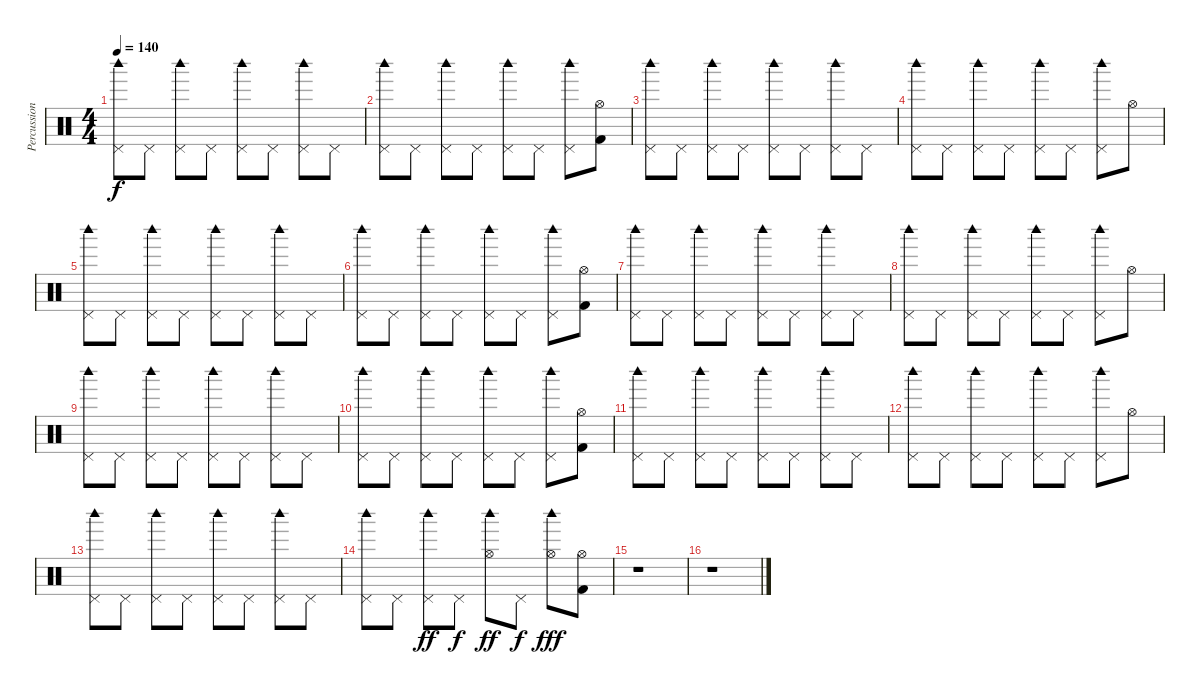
\track ("Percussion" "Percussion") {instrument percussion}
\staff {score}
\articulation defaults
\ts (4 4)
\tempo 140
\clef neutral
\ks c
("Pedal Hi-Hat (hit)" "Woodblock high (hit)").8{dy f} "Pedal Hi-Hat (hit)".8 ("Pedal Hi-Hat (hit)" "Woodblock high (hit)").8 "Pedal Hi-Hat (hit)".8 ("Pedal Hi-Hat (hit)" "Woodblock high (hit)").8 "Pedal Hi-Hat (hit)".8 ("Pedal Hi-Hat (hit)" "Woodblock high (hit)").8 "Pedal Hi-Hat (hit)".8 |
("Pedal Hi-Hat (hit)" "Woodblock high (hit)").8 "Pedal Hi-Hat (hit)".8 ("Pedal Hi-Hat (hit)" "Woodblock high (hit)").8 "Pedal Hi-Hat (hit)".8 ("Pedal Hi-Hat (hit)" "Woodblock high (hit)").8 "Pedal Hi-Hat (hit)".8 ("Pedal Hi-Hat (hit)" "Woodblock high (hit)").8 ("Hi-Hat (open)" "Kick (hit) 2").8 |
("Pedal Hi-Hat (hit)" "Woodblock high (hit)").8 "Pedal Hi-Hat (hit)".8 ("Pedal Hi-Hat (hit)" "Woodblock high (hit)").8 "Pedal Hi-Hat (hit)".8 ("Pedal Hi-Hat (hit)" "Woodblock high (hit)").8 "Pedal Hi-Hat (hit)".8 ("Pedal Hi-Hat (hit)" "Woodblock high (hit)").8 "Pedal Hi-Hat (hit)".8 |
("Pedal Hi-Hat (hit)" "Woodblock high (hit)").8 "Pedal Hi-Hat (hit)".8 ("Pedal Hi-Hat (hit)" "Woodblock high (hit)").8 "Pedal Hi-Hat (hit)".8 ("Pedal Hi-Hat (hit)" "Woodblock high (hit)").8 "Pedal Hi-Hat (hit)".8 ("Pedal Hi-Hat (hit)" "Woodblock high (hit)").8 "Hi-Hat (open)".8 |
("Pedal Hi-Hat (hit)" "Woodblock high (hit)").8 "Pedal Hi-Hat (hit)".8 ("Pedal Hi-Hat (hit)" "Woodblock high (hit)").8 "Pedal Hi-Hat (hit)".8 ("Pedal Hi-Hat (hit)" "Woodblock high (hit)").8 "Pedal Hi-Hat (hit)".8 ("Pedal Hi-Hat (hit)" "Woodblock high (hit)").8 "Pedal Hi-Hat (hit)".8 |
("Pedal Hi-Hat (hit)" "Woodblock high (hit)").8 "Pedal Hi-Hat (hit)".8 ("Pedal Hi-Hat (hit)" "Woodblock high (hit)").8 "Pedal Hi-Hat (hit)".8 ("Pedal Hi-Hat (hit)" "Woodblock high (hit)").8 "Pedal Hi-Hat (hit)".8 ("Pedal Hi-Hat (hit)" "Woodblock high (hit)").8 ("Hi-Hat (open)" "Kick (hit) 2").8 |
("Pedal Hi-Hat (hit)" "Woodblock high (hit)").8 "Pedal Hi-Hat (hit)".8 ("Pedal Hi-Hat (hit)" "Woodblock high (hit)").8 "Pedal Hi-Hat (hit)".8 ("Pedal Hi-Hat (hit)" "Woodblock high (hit)").8 "Pedal Hi-Hat (hit)".8 ("Pedal Hi-Hat (hit)" "Woodblock high (hit)").8 "Pedal Hi-Hat (hit)".8 |
("Pedal Hi-Hat (hit)" "Woodblock high (hit)").8 "Pedal Hi-Hat (hit)".8 ("Pedal Hi-Hat (hit)" "Woodblock high (hit)").8 "Pedal Hi-Hat (hit)".8 ("Pedal Hi-Hat (hit)" "Woodblock high (hit)").8 "Pedal Hi-Hat (hit)".8 ("Pedal Hi-Hat (hit)" "Woodblock high (hit)").8 "Hi-Hat (open)".8 |
("Pedal Hi-Hat (hit)" "Woodblock high (hit)").8 "Pedal Hi-Hat (hit)".8 ("Pedal Hi-Hat (hit)" "Woodblock high (hit)").8 "Pedal Hi-Hat (hit)".8 ("Pedal Hi-Hat (hit)" "Woodblock high (hit)").8 "Pedal Hi-Hat (hit)".8 ("Pedal Hi-Hat (hit)" "Woodblock high (hit)").8 "Pedal Hi-Hat (hit)".8 |
("Pedal Hi-Hat (hit)" "Woodblock high (hit)").8 "Pedal Hi-Hat (hit)".8 ("Pedal Hi-Hat (hit)" "Woodblock high (hit)").8 "Pedal Hi-Hat (hit)".8 ("Pedal Hi-Hat (hit)" "Woodblock high (hit)").8 "Pedal Hi-Hat (hit)".8 ("Pedal Hi-Hat (hit)" "Woodblock high (hit)").8 ("Hi-Hat (open)" "Kick (hit) 2").8 |
("Pedal Hi-Hat (hit)" "Woodblock high (hit)").8 "Pedal Hi-Hat (hit)".8 ("Pedal Hi-Hat (hit)" "Woodblock high (hit)").8 "Pedal Hi-Hat (hit)".8 ("Pedal Hi-Hat (hit)" "Woodblock high (hit)").8 "Pedal Hi-Hat (hit)".8 ("Pedal Hi-Hat (hit)" "Woodblock high (hit)").8 "Pedal Hi-Hat (hit)".8 |
("Pedal Hi-Hat (hit)" "Woodblock high (hit)").8 "Pedal Hi-Hat (hit)".8 ("Pedal Hi-Hat (hit)" "Woodblock high (hit)").8 "Pedal Hi-Hat (hit)".8 ("Pedal Hi-Hat (hit)" "Woodblock high (hit)").8 "Pedal Hi-Hat (hit)".8 ("Pedal Hi-Hat (hit)" "Woodblock high (hit)").8 "Hi-Hat (open)".8 |
("Pedal Hi-Hat (hit)" "Woodblock high (hit)").8 "Pedal Hi-Hat (hit)".8 ("Pedal Hi-Hat (hit)" "Woodblock high (hit)").8 "Pedal Hi-Hat (hit)".8 ("Pedal Hi-Hat (hit)" "Woodblock high (hit)").8 "Pedal Hi-Hat (hit)".8 ("Pedal Hi-Hat (hit)" "Woodblock high (hit)").8 "Pedal Hi-Hat (hit)".8 |
("Pedal Hi-Hat (hit)" "Woodblock high (hit)").8 "Pedal Hi-Hat (hit)".8 ("Pedal Hi-Hat (hit)" "Woodblock high (hit)").8{dy ff} "Pedal Hi-Hat (hit)".8{dy f} ("Hi-Hat (open)" "Woodblock high (hit)").8{dy ff} "Pedal Hi-Hat (hit)".8{dy f} ("Hi-Hat (open)" "Woodblock high (hit)").8{dy fff} ("Hi-Hat (open)" "Kick (hit) 2").8 |
r.1 |
r.1
